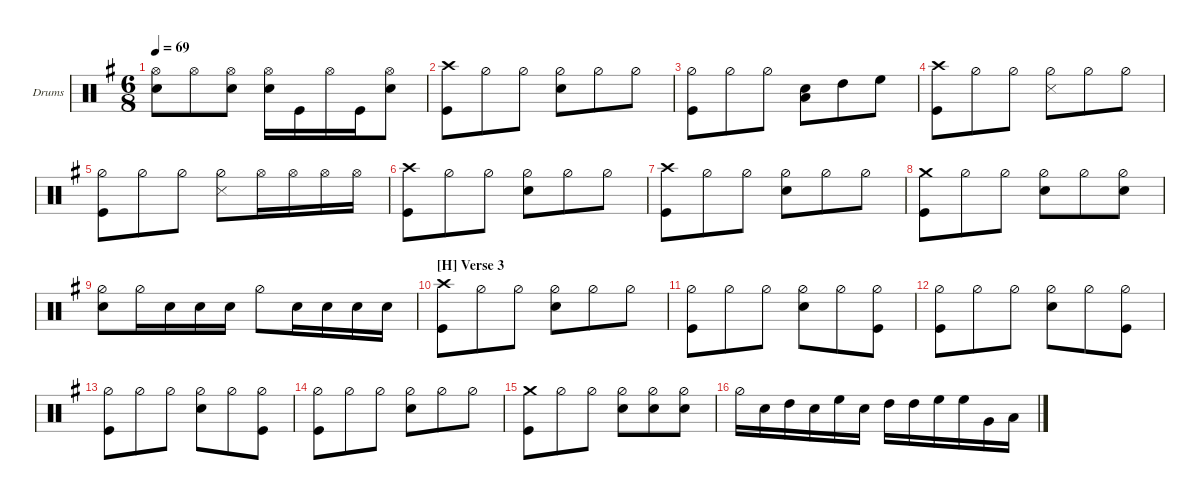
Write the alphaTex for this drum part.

\hideDynamics
\bracketExtendMode groupsimilarinstruments
\firstSystemTrackNameOrientation horizontal
\otherSystemsTrackNameOrientation horizontal
\track ("Drumkit" "Drums") {multiBarRest instrument percussion}
\staff {score}
\articulation defaults
\ts (6 8)
\tempo 69
\clef neutral
\ks g
("Hi-Hat (open)" "Snare (hit) 2").8{dy f} "Hi-Hat (open)".8 ("Hi-Hat (open)" "Snare (hit) 2").8 ("Snare (hit) 2" "Hi-Hat (open)").16 "Kick (hit)".16 "Hi-Hat (open)".16 "Kick (hit)".16 ("Hi-Hat (open)" "Snare (hit) 2").8 |
("Crash high (hit)" "Kick (hit)").8 "Hi-Hat (half)".8 "Hi-Hat (half)".8 ("Hi-Hat (half)" "Snare (hit) 2").8 "Hi-Hat (half)".8 "Hi-Hat (half)".8 |
("Hi-Hat (half)" "Kick (hit)").8 "Hi-Hat (half)".8 "Hi-Hat (half)".8 ("Snare (hit) 2" "Low Tom (hit)").8 "High Tom (hit)".8 "High Floor Tom (hit)".8 |
("Crash high (hit)" "Kick (hit)").8 "Hi-Hat (half)".8 "Hi-Hat (half)".8 ("Hi-Hat (half)" "Snare (side stick) 3").8 "Hi-Hat (half)".8 "Hi-Hat (half)".8 |
("Hi-Hat (half)" "Kick (hit)").8 "Hi-Hat (half)".8 "Hi-Hat (half)".8 ("Snare (side stick) 3" "Hi-Hat (half)").8 "Hi-Hat (open)".16 "Hi-Hat (open)".16 "Hi-Hat (open)".16 "Hi-Hat (open)".16 |
("Crash high (hit)" "Kick (hit)").8 "Hi-Hat (half)".8 "Hi-Hat (half)".8 ("Hi-Hat (half)" "Snare (hit) 2").8 "Hi-Hat (half)".8 "Hi-Hat (half)".8 |
("Crash high (hit)" "Kick (hit)").8 "Hi-Hat (half)".8 "Hi-Hat (half)".8 ("Hi-Hat (half)" "Snare (hit) 2").8 "Hi-Hat (half)".8 "Hi-Hat (half)".8 |
("Crash medium (hit)" "Kick (hit)").8 "Hi-Hat (half)".8 "Hi-Hat (half)".8 ("Hi-Hat (half)" "Snare (hit) 2").8 "Hi-Hat (half)".8 ("Hi-Hat (half)" "Snare (hit) 2").8 |
("Hi-Hat (half)" "Snare (hit) 2").8 "Hi-Hat (half)".16 "Snare (hit) 2".16 "Snare (hit) 2".16 "Snare (hit) 2".16 "Hi-Hat (half)".8 "Snare (hit) 2".16 "Snare (hit) 2".16 "Snare (hit) 2".16 "Snare (hit) 2".16 |
\section ("H" "Verse 3")
("Crash high (hit)" "Kick (hit)").8 "Hi-Hat (half)".8 "Hi-Hat (half)".8 ("Hi-Hat (half)" "Snare (hit) 2").8 "Hi-Hat (half)".8 "Hi-Hat (half)".8 |
("Hi-Hat (half)" "Kick (hit)").8 "Hi-Hat (half)".8 "Hi-Hat (half)".8 ("Hi-Hat (half)" "Snare (hit) 2").8 "Hi-Hat (half)".8 ("Hi-Hat (half)" "Kick (hit)").8 |
("Hi-Hat (half)" "Kick (hit)").8 "Hi-Hat (half)".8 "Hi-Hat (half)".8 ("Hi-Hat (half)" "Snare (hit) 2").8 "Hi-Hat (half)".8 ("Hi-Hat (half)" "Kick (hit)").8 |
("Hi-Hat (half)" "Kick (hit)").8 "Hi-Hat (half)".8 "Hi-Hat (half)".8 ("Hi-Hat (half)" "Snare (hit) 2").8 "Hi-Hat (half)".8 ("Hi-Hat (half)" "Kick (hit)").8 |
("Hi-Hat (half)" "Kick (hit)").8 "Hi-Hat (half)".8 "Hi-Hat (half)".8 ("Hi-Hat (half)" "Snare (hit) 2").8 "Hi-Hat (half)".8 "Hi-Hat (half)".8 |
("Crash medium (hit)" "Kick (hit)").8 "Hi-Hat (half)".8 "Hi-Hat (half)".8 ("Hi-Hat (half)" "Snare (hit) 2").8 ("Hi-Hat (half)" "Snare (hit) 2").8 ("Hi-Hat (half)" "Snare (hit) 2").8 |
"Hi-Hat (half)".16 "Snare (hit) 2".16 "High Tom (hit)".16 "Snare (hit) 2".16 "High Floor Tom (hit)".16 "Snare (hit) 2".16 "High Tom (hit)".16 "High Tom (hit)".16 "High Floor Tom (hit)".16 "High Floor Tom (hit)".16 "Very Low Tom (hit)".16 "Low Tom (hit)".16
